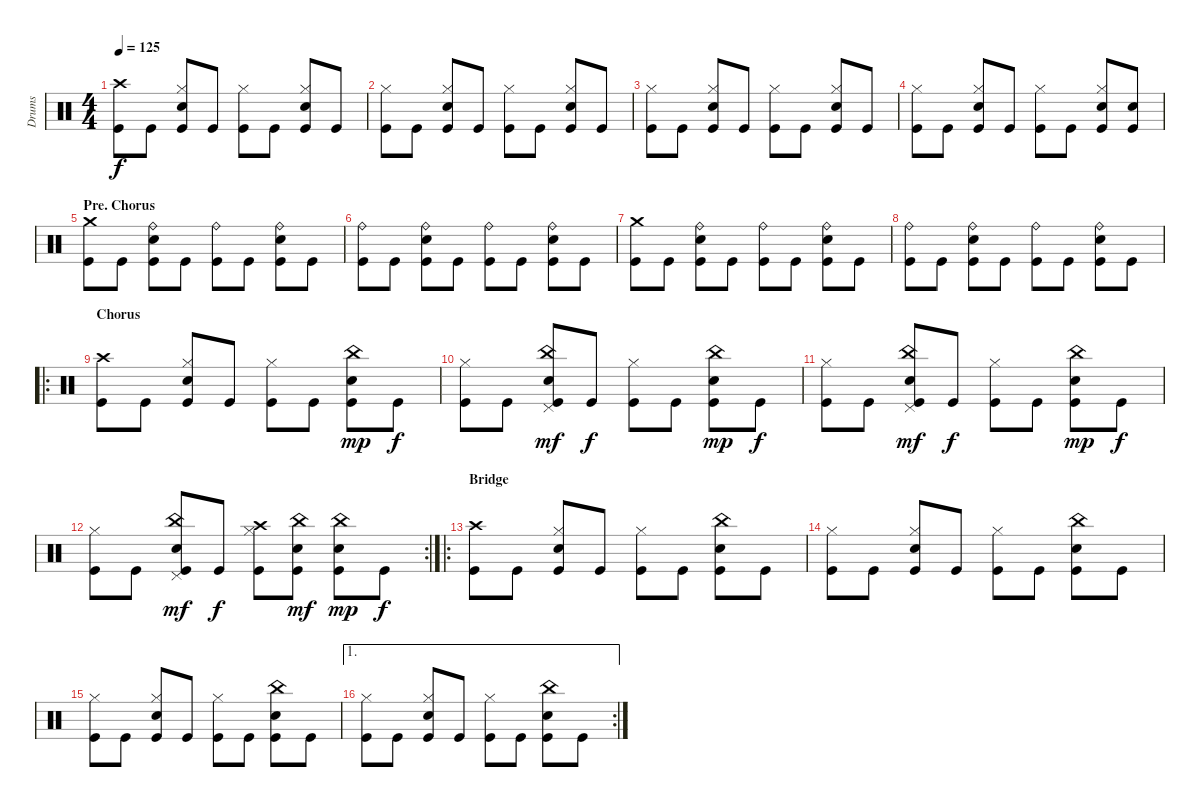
\track ("Drums" "Drums") {instrument percussion}
\staff {score}
\articulation defaults
\ts (4 4)
\tempo 125
\clef neutral
\ks c
("Crash high (hit)" "Kick (hit)").8{dy f} "Kick (hit)".8 ("Hi-Hat (closed)" "Snare (hit) 2" "Kick (hit)").8 "Kick (hit)".8 ("Hi-Hat (closed)" "Kick (hit)").8 "Kick (hit)".8 ("Hi-Hat (closed)" "Snare (hit) 2" "Kick (hit)").8 "Kick (hit)".8 |
("Hi-Hat (closed)" "Kick (hit)").8 "Kick (hit)".8 ("Hi-Hat (closed)" "Snare (hit) 2" "Kick (hit)").8 "Kick (hit)".8 ("Hi-Hat (closed)" "Kick (hit)").8 "Kick (hit)".8 ("Hi-Hat (closed)" "Snare (hit) 2" "Kick (hit)").8 "Kick (hit)".8 |
("Hi-Hat (closed)" "Kick (hit)").8 "Kick (hit)".8 ("Hi-Hat (closed)" "Snare (hit) 2" "Kick (hit)").8 "Kick (hit)".8 ("Hi-Hat (closed)" "Kick (hit)").8 "Kick (hit)".8 ("Hi-Hat (closed)" "Snare (hit) 2" "Kick (hit)").8 "Kick (hit)".8 |
("Hi-Hat (closed)" "Kick (hit)").8 "Kick (hit)".8 ("Hi-Hat (closed)" "Snare (hit) 2" "Kick (hit)").8 "Kick (hit)".8 ("Hi-Hat (closed)" "Kick (hit)").8 "Kick (hit)".8 ("Hi-Hat (closed)" "Snare (hit) 2" "Kick (hit)").8 ("Snare (hit) 2" "Kick (hit)").8 |
\section ("" "Pre. Chorus")
("Crash medium (hit)" "Kick (hit)").8 "Kick (hit)".8 ("Ride (bell)" "Snare (hit) 2" "Kick (hit)").8 "Kick (hit)".8 ("Ride (bell)" "Kick (hit)").8 "Kick (hit)".8 ("Ride (bell)" "Snare (hit) 2" "Kick (hit)").8 "Kick (hit)".8 |
("Ride (bell)" "Kick (hit)").8 "Kick (hit)".8 ("Ride (bell)" "Snare (hit) 2" "Kick (hit)").8 "Kick (hit)".8 ("Ride (bell)" "Kick (hit)").8 "Kick (hit)".8 ("Ride (bell)" "Snare (hit) 2" "Kick (hit)").8 "Kick (hit)".8 |
("Crash medium (hit)" "Kick (hit)").8 "Kick (hit)".8 ("Ride (bell)" "Snare (hit) 2" "Kick (hit)").8 "Kick (hit)".8 ("Ride (bell)" "Kick (hit)").8 "Kick (hit)".8 ("Ride (bell)" "Snare (hit) 2" "Kick (hit)").8 "Kick (hit)".8 |
("Ride (bell)" "Kick (hit)").8 "Kick (hit)".8 ("Ride (bell)" "Snare (hit) 2" "Kick (hit)").8 "Kick (hit)".8 ("Ride (bell)" "Kick (hit)").8 "Kick (hit)".8 ("Ride (bell)" "Snare (hit) 2" "Kick (hit)").8 "Kick (hit)".8 |
\ro
\section ("" "Chorus")
("Crash high (hit)" "Kick (hit)").8 "Kick (hit)".8 ("Hi-Hat (closed)" "Snare (hit) 2" "Kick (hit)").8 "Kick (hit)".8 ("Hi-Hat (closed)" "Kick (hit)").8 "Kick (hit)".8 ("China (hit)" "Snare (hit) 2" "Kick (hit)").8{dy mp} "Kick (hit)".8{dy f} |
("Hi-Hat (closed)" "Kick (hit)").8 "Kick (hit)".8 ("China (hit)" "Pedal Hi-Hat (hit)" "Snare (hit) 2" "Kick (hit)").8{dy mf} "Kick (hit)".8{dy f} ("Hi-Hat (closed)" "Kick (hit)").8 "Kick (hit)".8 ("China (hit)" "Snare (hit) 2" "Kick (hit)").8{dy mp} "Kick (hit)".8{dy f} |
("Hi-Hat (closed)" "Kick (hit)").8 "Kick (hit)".8 ("China (hit)" "Pedal Hi-Hat (hit)" "Snare (hit) 2" "Kick (hit)").8{dy mf} "Kick (hit)".8{dy f} ("Hi-Hat (closed)" "Kick (hit)").8 "Kick (hit)".8 ("China (hit)" "Snare (hit) 2" "Kick (hit)").8{dy mp} "Kick (hit)".8{dy f} |
\rc 2
("Hi-Hat (closed)" "Kick (hit)").8 "Kick (hit)".8 ("China (hit)" "Pedal Hi-Hat (hit)" "Snare (hit) 2" "Kick (hit)").8{dy mf} "Kick (hit)".8{dy f} ("Crash high (hit)" "Hi-Hat (closed)" "Kick (hit)").8 ("China (hit)" "Snare (hit) 2" "Kick (hit)").8{dy mf} ("China (hit)" "Snare (hit) 2" "Kick (hit)").8{dy mp} "Kick (hit)".8{dy f} |
\ro
\section ("" "Bridge")
("Crash high (hit)" "Kick (hit)").8 "Kick (hit)".8 ("Hi-Hat (closed)" "Snare (hit) 2" "Kick (hit)").8 "Kick (hit)".8 ("Hi-Hat (closed)" "Kick (hit)").8 "Kick (hit)".8 ("China (hit)" "Snare (hit) 2" "Kick (hit)").8 "Kick (hit)".8 |
("Hi-Hat (closed)" "Kick (hit)").8 "Kick (hit)".8 ("Hi-Hat (closed)" "Snare (hit) 2" "Kick (hit)").8 "Kick (hit)".8 ("Hi-Hat (closed)" "Kick (hit)").8 "Kick (hit)".8 ("China (hit)" "Snare (hit) 2" "Kick (hit)").8 "Kick (hit)".8 |
("Hi-Hat (closed)" "Kick (hit)").8 "Kick (hit)".8 ("Hi-Hat (closed)" "Snare (hit) 2" "Kick (hit)").8 "Kick (hit)".8 ("Hi-Hat (closed)" "Kick (hit)").8 "Kick (hit)".8 ("China (hit)" "Snare (hit) 2" "Kick (hit)").8 "Kick (hit)".8 |
\ae 1
\rc 2
("Hi-Hat (closed)" "Kick (hit)").8 "Kick (hit)".8 ("Hi-Hat (closed)" "Snare (hit) 2" "Kick (hit)").8 "Kick (hit)".8 ("Hi-Hat (closed)" "Kick (hit)").8 "Kick (hit)".8 ("China (hit)" "Snare (hit) 2" "Kick (hit)").8 "Kick (hit)".8
